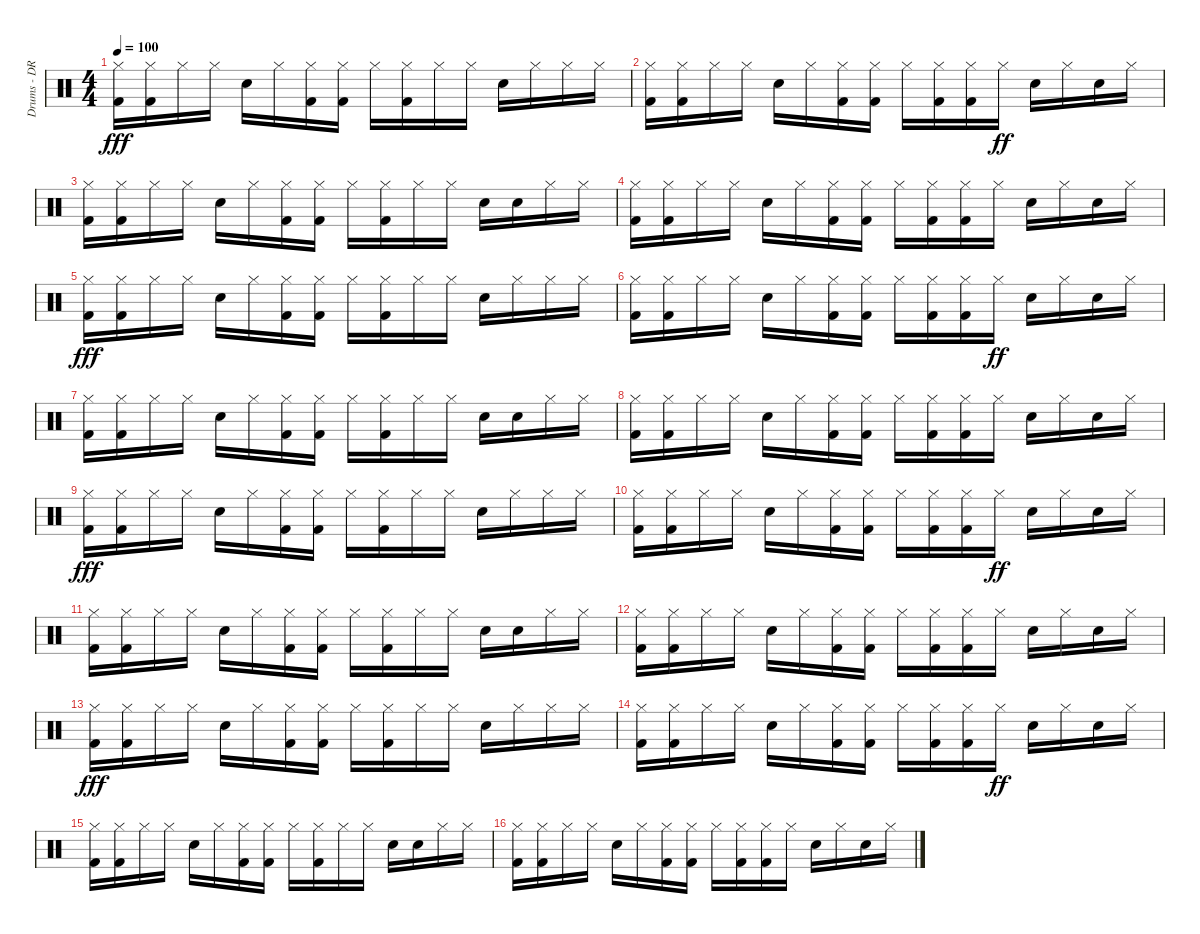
\track ("Drums - DR-660 Standard" "Drums - DR") {instrument percussion}
\staff {score}
\articulation defaults
\ts (4 4)
\tempo 100
\clef neutral
\ks c
("Kick (hit) 2" "Hi-Hat (closed)").16{dy fff} ("Kick (hit) 2" "Hi-Hat (closed)").16 "Hi-Hat (closed)".16 "Hi-Hat (closed)".16 "Snare (hit) 2".16 "Hi-Hat (closed)".16 ("Kick (hit) 2" "Hi-Hat (closed)").16 ("Kick (hit) 2" "Hi-Hat (closed)").16 "Hi-Hat (closed)".16 ("Kick (hit) 2" "Hi-Hat (closed)").16 "Hi-Hat (closed)".16 "Hi-Hat (closed)".16 "Snare (hit) 2".16 "Hi-Hat (closed)".16 "Hi-Hat (closed)".16 "Hi-Hat (closed)".16 |
("Kick (hit) 2" "Hi-Hat (closed)").16 ("Kick (hit) 2" "Hi-Hat (closed)").16 "Hi-Hat (closed)".16 "Hi-Hat (closed)".16 "Snare (hit) 2".16 "Hi-Hat (closed)".16 ("Kick (hit) 2" "Hi-Hat (closed)").16 ("Kick (hit) 2" "Hi-Hat (closed)").16 "Hi-Hat (closed)".16 ("Kick (hit) 2" "Hi-Hat (closed)").16 ("Kick (hit) 2" "Hi-Hat (closed)").16 "Hi-Hat (closed)".16{dy ff} "Snare (hit) 2".16 "Hi-Hat (closed)".16 "Snare (hit) 2".16 "Hi-Hat (closed)".16 |
("Kick (hit) 2" "Hi-Hat (closed)").16 ("Kick (hit) 2" "Hi-Hat (closed)").16 "Hi-Hat (closed)".16 "Hi-Hat (closed)".16 "Snare (hit) 2".16 "Hi-Hat (closed)".16 ("Kick (hit) 2" "Hi-Hat (closed)").16 ("Kick (hit) 2" "Hi-Hat (closed)").16 "Hi-Hat (closed)".16 ("Kick (hit) 2" "Hi-Hat (closed)").16 "Hi-Hat (closed)".16 "Hi-Hat (closed)".16 "Snare (hit) 2".16 "Snare (hit) 2".16 "Hi-Hat (closed)".16 "Hi-Hat (closed)".16 |
("Kick (hit) 2" "Hi-Hat (closed)").16 ("Kick (hit) 2" "Hi-Hat (closed)").16 "Hi-Hat (closed)".16 "Hi-Hat (closed)".16 "Snare (hit) 2".16 "Hi-Hat (closed)".16 ("Kick (hit) 2" "Hi-Hat (closed)").16 ("Kick (hit) 2" "Hi-Hat (closed)").16 "Hi-Hat (closed)".16 ("Kick (hit) 2" "Hi-Hat (closed)").16 ("Kick (hit) 2" "Hi-Hat (closed)").16 "Hi-Hat (closed)".16 "Snare (hit) 2".16 "Hi-Hat (closed)".16 "Snare (hit) 2".16 "Hi-Hat (closed)".16 |
("Kick (hit) 2" "Hi-Hat (closed)").16{dy fff} ("Kick (hit) 2" "Hi-Hat (closed)").16 "Hi-Hat (closed)".16 "Hi-Hat (closed)".16 "Snare (hit) 2".16 "Hi-Hat (closed)".16 ("Kick (hit) 2" "Hi-Hat (closed)").16 ("Kick (hit) 2" "Hi-Hat (closed)").16 "Hi-Hat (closed)".16 ("Kick (hit) 2" "Hi-Hat (closed)").16 "Hi-Hat (closed)".16 "Hi-Hat (closed)".16 "Snare (hit) 2".16 "Hi-Hat (closed)".16 "Hi-Hat (closed)".16 "Hi-Hat (closed)".16 |
("Kick (hit) 2" "Hi-Hat (closed)").16 ("Kick (hit) 2" "Hi-Hat (closed)").16 "Hi-Hat (closed)".16 "Hi-Hat (closed)".16 "Snare (hit) 2".16 "Hi-Hat (closed)".16 ("Kick (hit) 2" "Hi-Hat (closed)").16 ("Kick (hit) 2" "Hi-Hat (closed)").16 "Hi-Hat (closed)".16 ("Kick (hit) 2" "Hi-Hat (closed)").16 ("Kick (hit) 2" "Hi-Hat (closed)").16 "Hi-Hat (closed)".16{dy ff} "Snare (hit) 2".16 "Hi-Hat (closed)".16 "Snare (hit) 2".16 "Hi-Hat (closed)".16 |
("Kick (hit) 2" "Hi-Hat (closed)").16 ("Kick (hit) 2" "Hi-Hat (closed)").16 "Hi-Hat (closed)".16 "Hi-Hat (closed)".16 "Snare (hit) 2".16 "Hi-Hat (closed)".16 ("Kick (hit) 2" "Hi-Hat (closed)").16 ("Kick (hit) 2" "Hi-Hat (closed)").16 "Hi-Hat (closed)".16 ("Kick (hit) 2" "Hi-Hat (closed)").16 "Hi-Hat (closed)".16 "Hi-Hat (closed)".16 "Snare (hit) 2".16 "Snare (hit) 2".16 "Hi-Hat (closed)".16 "Hi-Hat (closed)".16 |
("Kick (hit) 2" "Hi-Hat (closed)").16 ("Kick (hit) 2" "Hi-Hat (closed)").16 "Hi-Hat (closed)".16 "Hi-Hat (closed)".16 "Snare (hit) 2".16 "Hi-Hat (closed)".16 ("Kick (hit) 2" "Hi-Hat (closed)").16 ("Kick (hit) 2" "Hi-Hat (closed)").16 "Hi-Hat (closed)".16 ("Kick (hit) 2" "Hi-Hat (closed)").16 ("Kick (hit) 2" "Hi-Hat (closed)").16 "Hi-Hat (closed)".16 "Snare (hit) 2".16 "Hi-Hat (closed)".16 "Snare (hit) 2".16 "Hi-Hat (closed)".16 |
("Kick (hit) 2" "Hi-Hat (closed)").16{dy fff} ("Kick (hit) 2" "Hi-Hat (closed)").16 "Hi-Hat (closed)".16 "Hi-Hat (closed)".16 "Snare (hit) 2".16 "Hi-Hat (closed)".16 ("Kick (hit) 2" "Hi-Hat (closed)").16 ("Kick (hit) 2" "Hi-Hat (closed)").16 "Hi-Hat (closed)".16 ("Kick (hit) 2" "Hi-Hat (closed)").16 "Hi-Hat (closed)".16 "Hi-Hat (closed)".16 "Snare (hit) 2".16 "Hi-Hat (closed)".16 "Hi-Hat (closed)".16 "Hi-Hat (closed)".16 |
("Kick (hit) 2" "Hi-Hat (closed)").16 ("Kick (hit) 2" "Hi-Hat (closed)").16 "Hi-Hat (closed)".16 "Hi-Hat (closed)".16 "Snare (hit) 2".16 "Hi-Hat (closed)".16 ("Kick (hit) 2" "Hi-Hat (closed)").16 ("Kick (hit) 2" "Hi-Hat (closed)").16 "Hi-Hat (closed)".16 ("Kick (hit) 2" "Hi-Hat (closed)").16 ("Kick (hit) 2" "Hi-Hat (closed)").16 "Hi-Hat (closed)".16{dy ff} "Snare (hit) 2".16 "Hi-Hat (closed)".16 "Snare (hit) 2".16 "Hi-Hat (closed)".16 |
("Kick (hit) 2" "Hi-Hat (closed)").16 ("Kick (hit) 2" "Hi-Hat (closed)").16 "Hi-Hat (closed)".16 "Hi-Hat (closed)".16 "Snare (hit) 2".16 "Hi-Hat (closed)".16 ("Kick (hit) 2" "Hi-Hat (closed)").16 ("Kick (hit) 2" "Hi-Hat (closed)").16 "Hi-Hat (closed)".16 ("Kick (hit) 2" "Hi-Hat (closed)").16 "Hi-Hat (closed)".16 "Hi-Hat (closed)".16 "Snare (hit) 2".16 "Snare (hit) 2".16 "Hi-Hat (closed)".16 "Hi-Hat (closed)".16 |
("Kick (hit) 2" "Hi-Hat (closed)").16 ("Kick (hit) 2" "Hi-Hat (closed)").16 "Hi-Hat (closed)".16 "Hi-Hat (closed)".16 "Snare (hit) 2".16 "Hi-Hat (closed)".16 ("Kick (hit) 2" "Hi-Hat (closed)").16 ("Kick (hit) 2" "Hi-Hat (closed)").16 "Hi-Hat (closed)".16 ("Kick (hit) 2" "Hi-Hat (closed)").16 ("Kick (hit) 2" "Hi-Hat (closed)").16 "Hi-Hat (closed)".16 "Snare (hit) 2".16 "Hi-Hat (closed)".16 "Snare (hit) 2".16 "Hi-Hat (closed)".16 |
("Kick (hit) 2" "Hi-Hat (closed)").16{dy fff} ("Kick (hit) 2" "Hi-Hat (closed)").16 "Hi-Hat (closed)".16 "Hi-Hat (closed)".16 "Snare (hit) 2".16 "Hi-Hat (closed)".16 ("Kick (hit) 2" "Hi-Hat (closed)").16 ("Kick (hit) 2" "Hi-Hat (closed)").16 "Hi-Hat (closed)".16 ("Kick (hit) 2" "Hi-Hat (closed)").16 "Hi-Hat (closed)".16 "Hi-Hat (closed)".16 "Snare (hit) 2".16 "Hi-Hat (closed)".16 "Hi-Hat (closed)".16 "Hi-Hat (closed)".16 |
("Kick (hit) 2" "Hi-Hat (closed)").16 ("Kick (hit) 2" "Hi-Hat (closed)").16 "Hi-Hat (closed)".16 "Hi-Hat (closed)".16 "Snare (hit) 2".16 "Hi-Hat (closed)".16 ("Kick (hit) 2" "Hi-Hat (closed)").16 ("Kick (hit) 2" "Hi-Hat (closed)").16 "Hi-Hat (closed)".16 ("Kick (hit) 2" "Hi-Hat (closed)").16 ("Kick (hit) 2" "Hi-Hat (closed)").16 "Hi-Hat (closed)".16{dy ff} "Snare (hit) 2".16 "Hi-Hat (closed)".16 "Snare (hit) 2".16 "Hi-Hat (closed)".16 |
("Kick (hit) 2" "Hi-Hat (closed)").16 ("Kick (hit) 2" "Hi-Hat (closed)").16 "Hi-Hat (closed)".16 "Hi-Hat (closed)".16 "Snare (hit) 2".16 "Hi-Hat (closed)".16 ("Kick (hit) 2" "Hi-Hat (closed)").16 ("Kick (hit) 2" "Hi-Hat (closed)").16 "Hi-Hat (closed)".16 ("Kick (hit) 2" "Hi-Hat (closed)").16 "Hi-Hat (closed)".16 "Hi-Hat (closed)".16 "Snare (hit) 2".16 "Snare (hit) 2".16 "Hi-Hat (closed)".16 "Hi-Hat (closed)".16 |
("Kick (hit) 2" "Hi-Hat (closed)").16 ("Kick (hit) 2" "Hi-Hat (closed)").16 "Hi-Hat (closed)".16 "Hi-Hat (closed)".16 "Snare (hit) 2".16 "Hi-Hat (closed)".16 ("Kick (hit) 2" "Hi-Hat (closed)").16 ("Kick (hit) 2" "Hi-Hat (closed)").16 "Hi-Hat (closed)".16 ("Kick (hit) 2" "Hi-Hat (closed)").16 ("Kick (hit) 2" "Hi-Hat (closed)").16 "Hi-Hat (closed)".16 "Snare (hit) 2".16 "Hi-Hat (closed)".16 "Snare (hit) 2".16 "Hi-Hat (closed)".16
